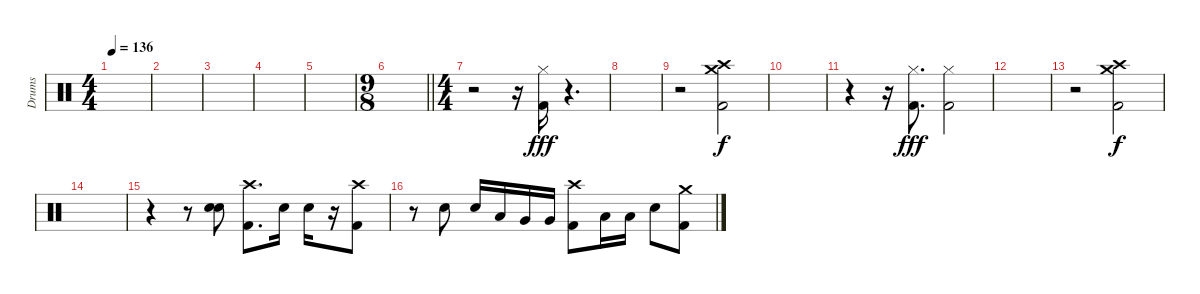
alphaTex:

\track ("Drums" "Drums") {instrument percussion}
\staff {score}
\articulation defaults
\ts (4 4)
\tempo 136
\clef neutral
\ks c
|
|
|
|
|
\ts (9 8)
\barLineRight lightlight
|
\ts (4 4)
\section ("" "")
r.2 r.16 ("Hi-Hat (closed)" "Kick (hit) 2").16{dy fff} r.4{d} |
|
r.2 ("Crash medium (hit)" "Crash high (hit)" "Kick (hit) 2").2{dy f} |
|
r.4 r.16 ("Hi-Hat (closed)" "Kick (hit) 2").8{d dy fff} ("Hi-Hat (closed)" "Kick (hit) 2").2 |
|
r.2 ("Crash medium (hit)" "Crash high (hit)" "Kick (hit) 2").2{dy f} |
|
r.4 r.8 ("Snare (hit) 2" "Electric Snare (hit)").8 ("Crash high (hit)" "Kick (hit) 2").8{d} "Electric Snare (hit)".16 "Electric Snare (hit)".16 r.16 ("Crash high (hit)" "Kick (hit) 2").8 |
r.8 "Electric Snare (hit)".8 "Electric Snare (hit)".16 "Low Tom (hit)".16 "Very Low Tom (hit)".16 "Very Low Tom (hit)".16 ("Crash high (hit)" "Kick (hit) 2").8 "Low Tom (hit)".16 "Low Tom (hit)".16 "Electric Snare (hit)".8 ("Crash medium (hit)" "Kick (hit) 2").8
